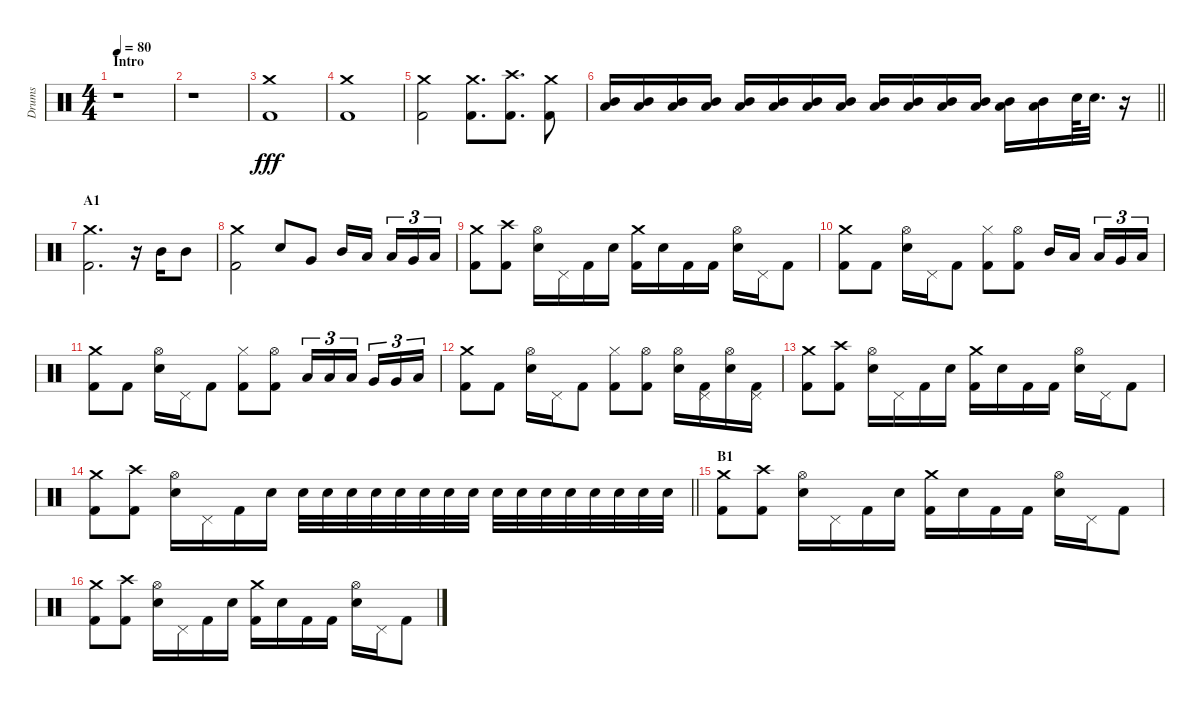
\track ("Drums" "Drums") {instrument percussion}
\staff {score}
\articulation defaults
\ts (4 4)
\section ("" "Intro")
\tempo 80
\clef neutral
\ks c
r.1{dy fff} |
r.1 |
("Crash medium (hit)" "Kick (hit) 2").1 |
("Crash medium (hit)" "Kick (hit) 2").1 |
("Crash medium (hit)" "Kick (hit) 2").2 ("Crash medium (hit)" "Kick (hit) 2").8{d} ("Crash high (hit)" "Kick (hit) 2").8{d} ("Crash medium (hit)" "Kick (hit) 2").8 |
\barLineRight lightlight
("Mid Tom (hit)" "Low Floor Tom (hit)").16 ("Mid Tom (hit)" "Low Floor Tom (hit)").16 ("Mid Tom (hit)" "Low Floor Tom (hit)").16 ("Mid Tom (hit)" "Low Floor Tom (hit)").16 ("Mid Tom (hit)" "Low Floor Tom (hit)").16 ("Mid Tom (hit)" "Low Floor Tom (hit)").16 ("Mid Tom (hit)" "Low Floor Tom (hit)").16 ("Mid Tom (hit)" "Low Floor Tom (hit)").16 ("Mid Tom (hit)" "Low Floor Tom (hit)").16 ("Mid Tom (hit)" "Low Floor Tom (hit)").16 ("Mid Tom (hit)" "Low Floor Tom (hit)").16 ("Mid Tom (hit)" "Low Floor Tom (hit)").16 ("Mid Tom (hit)" "Low Floor Tom (hit)").16 ("Mid Tom (hit)" "Low Floor Tom (hit)").16 "Snare (hit) 2".64 "Snare (hit) 2".32{d} r.16 |
\section ("" "A1")
("Crash medium (hit)" "Kick (hit) 2").2{d} r.16 "Mid Tom (hit)".16 "Mid Tom (hit)".8 |
("Crash medium (hit)" "Kick (hit) 2").2 "Snare (hit) 2".8 "Very Low Tom (hit)".8 "Mid Tom (hit)".16 "Low Tom (hit)".16{beam splitsecondary} "Low Tom (hit)".16{tu (3 2)} "Very Low Tom (hit)".16{tu (3 2)} "Low Floor Tom (hit)".16{tu (3 2)} |
("Crash medium (hit)" "Kick (hit) 2").8 ("Crash high (hit)" "Kick (hit) 2").8 ("Hi-Hat (open)" "Snare (hit) 2").16 "Pedal Hi-Hat (hit)".16 "Kick (hit) 2".16 "Snare (hit) 2".16 ("Crash medium (hit)" "Kick (hit) 2").16 "Snare (hit) 2".16 "Kick (hit) 2".16 "Kick (hit) 2".16 ("Hi-Hat (open)" "Snare (hit) 2").16 "Pedal Hi-Hat (hit)".16 "Kick (hit) 2".8 |
("Crash medium (hit)" "Kick (hit) 2").8 "Kick (hit) 2".8 ("Hi-Hat (open)" "Snare (hit) 2").16 "Pedal Hi-Hat (hit)".16 "Kick (hit) 2".8 ("Hi-Hat (closed)" "Kick (hit) 2").8 ("Hi-Hat (open)" "Kick (hit) 2").8 "Mid Tom (hit)".16 "Low Tom (hit)".16{beam splitsecondary} "Low Tom (hit)".16{tu (3 2)} "Very Low Tom (hit)".16{tu (3 2)} "Low Floor Tom (hit)".16{tu (3 2)} |
("Crash medium (hit)" "Kick (hit) 2").8 "Kick (hit) 2".8 ("Hi-Hat (open)" "Snare (hit) 2").16 "Pedal Hi-Hat (hit)".16 "Kick (hit) 2".8 ("Hi-Hat (closed)" "Kick (hit) 2").8 ("Hi-Hat (open)" "Kick (hit) 2").8 "Low Tom (hit)".16{tu (3 2)} "Low Tom (hit)".16{tu (3 2)} "Low Tom (hit)".16{tu (3 2) beam splitsecondary} "Very Low Tom (hit)".16{tu (3 2)} "Very Low Tom (hit)".16{tu (3 2)} "Low Floor Tom (hit)".16{tu (3 2)} |
("Crash medium (hit)" "Kick (hit) 2").8 "Kick (hit) 2".8 ("Hi-Hat (open)" "Snare (hit) 2").16 "Pedal Hi-Hat (hit)".16 "Kick (hit) 2".8 ("Hi-Hat (closed)" "Kick (hit) 2").8 ("Hi-Hat (open)" "Kick (hit) 2").8 ("Hi-Hat (open)" "Snare (hit) 2").16 ("Pedal Hi-Hat (hit)" "Kick (hit) 2").16 ("Hi-Hat (open)" "Snare (hit) 2").16 ("Pedal Hi-Hat (hit)" "Kick (hit) 2").16 |
("Crash medium (hit)" "Kick (hit) 2").8 ("Crash high (hit)" "Kick (hit) 2").8 ("Hi-Hat (open)" "Snare (hit) 2").16 "Pedal Hi-Hat (hit)".16 "Kick (hit) 2".16 "Snare (hit) 2".16 ("Crash medium (hit)" "Kick (hit) 2").16 "Snare (hit) 2".16 "Kick (hit) 2".16 "Kick (hit) 2".16 ("Hi-Hat (open)" "Snare (hit) 2").16 "Pedal Hi-Hat (hit)".16 "Kick (hit) 2".8 |
\barLineRight lightlight
("Crash medium (hit)" "Kick (hit) 2").8 ("Crash high (hit)" "Kick (hit) 2").8 ("Hi-Hat (open)" "Snare (hit) 2").16 "Pedal Hi-Hat (hit)".16 "Kick (hit) 2".16 "Snare (hit) 2".16 "Snare (hit) 2".32 "Snare (hit) 2".32 "Snare (hit) 2".32 "Snare (hit) 2".32 "Snare (hit) 2".32 "Snare (hit) 2".32 "Snare (hit) 2".32 "Snare (hit) 2".32 "Snare (hit) 2".32 "Snare (hit) 2".32 "Snare (hit) 2".32 "Snare (hit) 2".32 "Snare (hit) 2".32 "Snare (hit) 2".32 "Snare (hit) 2".32 "Snare (hit) 2".32 |
\section ("" "B1")
("Crash medium (hit)" "Kick (hit) 2").8 ("Crash high (hit)" "Kick (hit) 2").8 ("Hi-Hat (open)" "Snare (hit) 2").16 "Pedal Hi-Hat (hit)".16 "Kick (hit) 2".16 "Snare (hit) 2".16 ("Crash medium (hit)" "Kick (hit) 2").16 "Snare (hit) 2".16 "Kick (hit) 2".16 "Kick (hit) 2".16 ("Hi-Hat (open)" "Snare (hit) 2").16 "Pedal Hi-Hat (hit)".16 "Kick (hit) 2".8 |
("Crash medium (hit)" "Kick (hit) 2").8 ("Crash high (hit)" "Kick (hit) 2").8 ("Hi-Hat (open)" "Snare (hit) 2").16 "Pedal Hi-Hat (hit)".16 "Kick (hit) 2".16 "Snare (hit) 2".16 ("Crash medium (hit)" "Kick (hit) 2").16 "Snare (hit) 2".16 "Kick (hit) 2".16 "Kick (hit) 2".16 ("Hi-Hat (open)" "Snare (hit) 2").16 "Pedal Hi-Hat (hit)".16 "Kick (hit) 2".8
